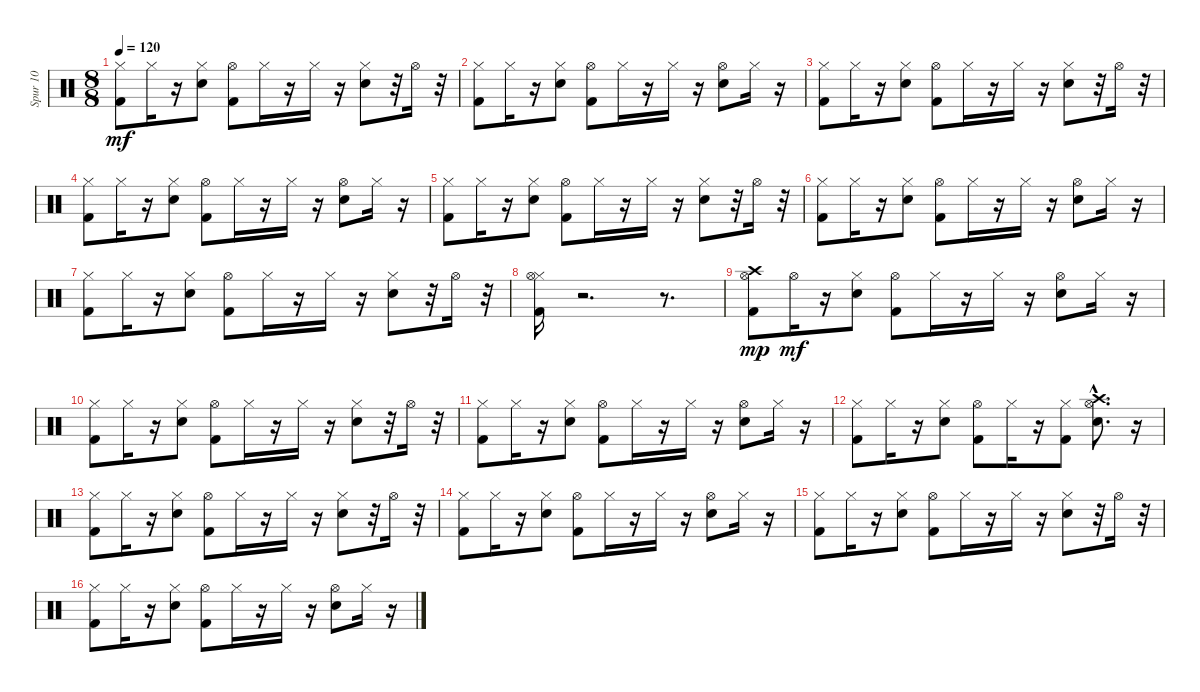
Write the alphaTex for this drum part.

\track ("Spur 10" "Spur 10") {instrument percussion}
\staff {score}
\articulation defaults
\ts (8 8)
\tempo 120
\clef neutral
\ks c
("Hi-Hat (closed)" "Kick (hit) 2").8{dy mf} "Hi-Hat (closed)".16 r.16 ("Hi-Hat (closed)" "Metronome (bell)").8 ("Kick (hit) 2" "Hi-Hat (open)").8 "Hi-Hat (closed)".16 r.16 "Hi-Hat (closed)".16 r.16 ("Hi-Hat (closed)" "Metronome (bell)").8 r.32 "Hi-Hat (open)".16 r.32 |
("Hi-Hat (closed)" "Kick (hit) 2").8 "Hi-Hat (closed)".16 r.16 ("Hi-Hat (closed)" "Metronome (bell)").8 ("Kick (hit) 2" "Hi-Hat (open)").8 "Hi-Hat (closed)".16 r.16 "Hi-Hat (closed)".16 r.16 ("Hi-Hat (open)" "Metronome (bell)").8 "Hi-Hat (closed)".16 r.16 |
("Hi-Hat (closed)" "Kick (hit) 2").8 "Hi-Hat (closed)".16 r.16 ("Hi-Hat (closed)" "Metronome (bell)").8 ("Kick (hit) 2" "Hi-Hat (open)").8 "Hi-Hat (closed)".16 r.16 "Hi-Hat (closed)".16 r.16 ("Hi-Hat (closed)" "Metronome (bell)").8 r.32 "Hi-Hat (open)".16 r.32 |
("Hi-Hat (closed)" "Kick (hit) 2").8 "Hi-Hat (closed)".16 r.16 ("Hi-Hat (closed)" "Metronome (bell)").8 ("Kick (hit) 2" "Hi-Hat (open)").8 "Hi-Hat (closed)".16 r.16 "Hi-Hat (closed)".16 r.16 ("Hi-Hat (open)" "Metronome (bell)").8 "Hi-Hat (closed)".16 r.16 |
("Hi-Hat (closed)" "Kick (hit) 2").8 "Hi-Hat (closed)".16 r.16 ("Hi-Hat (closed)" "Metronome (bell)").8 ("Kick (hit) 2" "Hi-Hat (open)").8 "Hi-Hat (closed)".16 r.16 "Hi-Hat (closed)".16 r.16 ("Hi-Hat (closed)" "Metronome (bell)").8 r.32 "Hi-Hat (open)".16 r.32 |
("Hi-Hat (closed)" "Kick (hit) 2").8 "Hi-Hat (closed)".16 r.16 ("Hi-Hat (closed)" "Metronome (bell)").8 ("Kick (hit) 2" "Hi-Hat (open)").8 "Hi-Hat (closed)".16 r.16 "Hi-Hat (closed)".16 r.16 ("Hi-Hat (open)" "Metronome (bell)").8 "Hi-Hat (closed)".16 r.16 |
("Hi-Hat (closed)" "Kick (hit) 2").8 "Hi-Hat (closed)".16 r.16 ("Hi-Hat (closed)" "Metronome (bell)").8 ("Kick (hit) 2" "Hi-Hat (open)").8 "Hi-Hat (closed)".16 r.16 "Hi-Hat (closed)".16 r.16 ("Hi-Hat (closed)" "Metronome (bell)").8 r.32 "Hi-Hat (open)".16 r.32 |
("Hi-Hat (closed)" "Kick (hit) 2" "Hi-Hat (open)").16 r.2{d} r.8{d} |
("Hi-Hat (open)" "Kick (hit) 2" "Crash high (hit)").8{dy mp} "Hi-Hat (open)".16{dy mf} r.16 ("Hi-Hat (closed)" "Metronome (bell)").8 ("Kick (hit) 2" "Hi-Hat (open)").8 "Hi-Hat (closed)".16 r.16 "Hi-Hat (closed)".16 r.16 ("Hi-Hat (open)" "Metronome (bell)").8 "Hi-Hat (closed)".16 r.16 |
("Hi-Hat (closed)" "Kick (hit) 2").8 "Hi-Hat (closed)".16 r.16 ("Hi-Hat (closed)" "Metronome (bell)").8 ("Kick (hit) 2" "Hi-Hat (open)").8 "Hi-Hat (closed)".16 r.16 "Hi-Hat (closed)".16 r.16 ("Hi-Hat (closed)" "Metronome (bell)").8 r.32 "Hi-Hat (open)".16 r.32 |
("Hi-Hat (closed)" "Kick (hit) 2").8 "Hi-Hat (closed)".16 r.16 ("Hi-Hat (closed)" "Metronome (bell)").8 ("Kick (hit) 2" "Hi-Hat (open)").8 "Hi-Hat (closed)".16 r.16 "Hi-Hat (closed)".16 r.16 ("Hi-Hat (open)" "Metronome (bell)").8 "Hi-Hat (closed)".16 r.16 |
("Hi-Hat (closed)" "Kick (hit) 2").8 "Hi-Hat (closed)".16 r.16 ("Hi-Hat (closed)" "Metronome (bell)").8 ("Kick (hit) 2" "Hi-Hat (open)").8 "Hi-Hat (closed)".16 r.16 ("Hi-Hat (closed)" "Kick (hit) 2").8 ("Crash high (hit)"{hac} "Hi-Hat (open)" "Metronome (bell)").8{d} r.16 |
("Hi-Hat (closed)" "Kick (hit) 2").8 "Hi-Hat (closed)".16 r.16 ("Hi-Hat (closed)" "Metronome (bell)").8 ("Kick (hit) 2" "Hi-Hat (open)").8 "Hi-Hat (closed)".16 r.16 "Hi-Hat (closed)".16 r.16 ("Hi-Hat (closed)" "Metronome (bell)").8 r.32 "Hi-Hat (open)".16 r.32 |
("Hi-Hat (closed)" "Kick (hit) 2").8 "Hi-Hat (closed)".16 r.16 ("Hi-Hat (closed)" "Metronome (bell)").8 ("Kick (hit) 2" "Hi-Hat (open)").8 "Hi-Hat (closed)".16 r.16 "Hi-Hat (closed)".16 r.16 ("Hi-Hat (open)" "Metronome (bell)").8 "Hi-Hat (closed)".16 r.16 |
("Hi-Hat (closed)" "Kick (hit) 2").8 "Hi-Hat (closed)".16 r.16 ("Hi-Hat (closed)" "Metronome (bell)").8 ("Kick (hit) 2" "Hi-Hat (open)").8 "Hi-Hat (closed)".16 r.16 "Hi-Hat (closed)".16 r.16 ("Hi-Hat (closed)" "Metronome (bell)").8 r.32 "Hi-Hat (open)".16 r.32 |
("Hi-Hat (closed)" "Kick (hit) 2").8 "Hi-Hat (closed)".16 r.16 ("Hi-Hat (closed)" "Metronome (bell)").8 ("Kick (hit) 2" "Hi-Hat (open)").8 "Hi-Hat (closed)".16 r.16 "Hi-Hat (closed)".16 r.16 ("Hi-Hat (open)" "Metronome (bell)").8 "Hi-Hat (closed)".16 r.16
